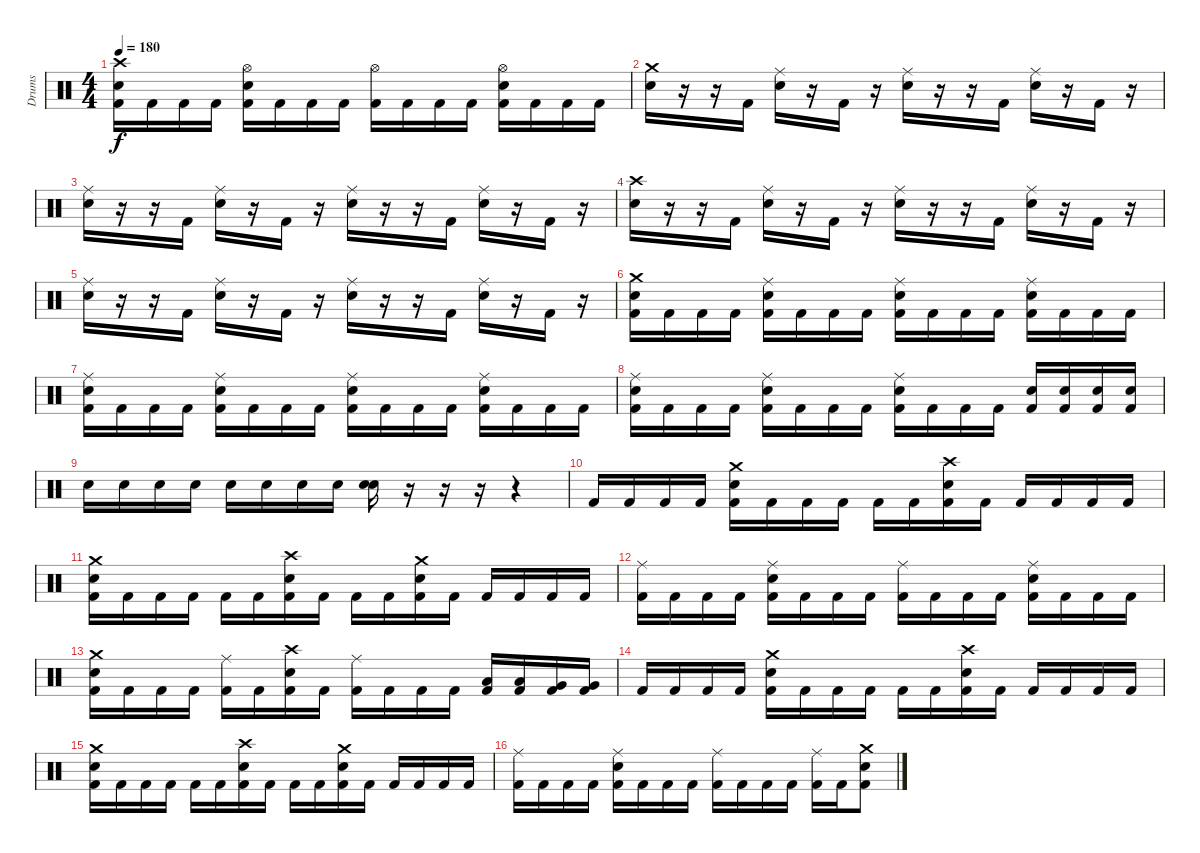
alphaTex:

\track ("Drums" "Drums") {instrument percussion}
\staff {score}
\articulation defaults
\ts (4 4)
\tempo 180
\clef neutral
\ks c
("Crash high (hit)" "Snare (hit) 2" "Kick (hit) 2").16{dy f} "Kick (hit) 2".16 "Kick (hit) 2".16 "Kick (hit) 2".16 ("Hi-Hat (open)" "Snare (hit) 2" "Kick (hit) 2").16 "Kick (hit) 2".16 "Kick (hit) 2".16 "Kick (hit) 2".16 ("Hi-Hat (open)" "Kick (hit) 2").16 "Kick (hit) 2".16 "Kick (hit) 2".16 "Kick (hit) 2".16 ("Hi-Hat (open)" "Snare (hit) 2" "Kick (hit) 2").16 "Kick (hit) 2".16 "Kick (hit) 2".16 "Kick (hit) 2".16 |
("Crash medium (hit)" "Snare (hit) 2").16 r.16 r.16 "Kick (hit) 2".16 ("Ride (middle)" "Snare (hit) 2").16 r.16 "Kick (hit) 2".16 r.16 ("Ride (middle)" "Snare (hit) 2").16 r.16 r.16 "Kick (hit) 2".16 ("Ride (middle)" "Snare (hit) 2").16 r.16 "Kick (hit) 2".16 r.16 |
("Ride (middle)" "Snare (hit) 2").16 r.16 r.16 "Kick (hit) 2".16 ("Ride (middle)" "Snare (hit) 2").16 r.16 "Kick (hit) 2".16 r.16 ("Ride (middle)" "Snare (hit) 2").16 r.16 r.16 "Kick (hit) 2".16 ("Ride (middle)" "Snare (hit) 2").16 r.16 "Kick (hit) 2".16 r.16 |
("Crash high (hit)" "Snare (hit) 2").16 r.16 r.16 "Kick (hit) 2".16 ("Ride (middle)" "Snare (hit) 2").16 r.16 "Kick (hit) 2".16 r.16 ("Ride (middle)" "Snare (hit) 2").16 r.16 r.16 "Kick (hit) 2".16 ("Ride (middle)" "Snare (hit) 2").16 r.16 "Kick (hit) 2".16 r.16 |
("Ride (middle)" "Snare (hit) 2").16 r.16 r.16 "Kick (hit) 2".16 ("Ride (middle)" "Snare (hit) 2").16 r.16 "Kick (hit) 2".16 r.16 ("Ride (middle)" "Snare (hit) 2").16 r.16 r.16 "Kick (hit) 2".16 ("Ride (middle)" "Snare (hit) 2").16 r.16 "Kick (hit) 2".16 r.16 |
("Crash medium (hit)" "Snare (hit) 2" "Kick (hit) 2").16 "Kick (hit) 2".16 "Kick (hit) 2".16 "Kick (hit) 2".16 ("Ride (middle)" "Snare (hit) 2" "Kick (hit) 2").16 "Kick (hit) 2".16 "Kick (hit) 2".16 "Kick (hit) 2".16 ("Ride (middle)" "Snare (hit) 2" "Kick (hit) 2").16 "Kick (hit) 2".16 "Kick (hit) 2".16 "Kick (hit) 2".16 ("Ride (middle)" "Snare (hit) 2" "Kick (hit) 2").16 "Kick (hit) 2".16 "Kick (hit) 2".16 "Kick (hit) 2".16 |
("Ride (middle)" "Snare (hit) 2" "Kick (hit) 2").16 "Kick (hit) 2".16 "Kick (hit) 2".16 "Kick (hit) 2".16 ("Ride (middle)" "Snare (hit) 2" "Kick (hit) 2").16 "Kick (hit) 2".16 "Kick (hit) 2".16 "Kick (hit) 2".16 ("Ride (middle)" "Snare (hit) 2" "Kick (hit) 2").16 "Kick (hit) 2".16 "Kick (hit) 2".16 "Kick (hit) 2".16 ("Ride (middle)" "Snare (hit) 2" "Kick (hit) 2").16 "Kick (hit) 2".16 "Kick (hit) 2".16 "Kick (hit) 2".16 |
("Ride (middle)" "Snare (hit) 2" "Kick (hit) 2").16 "Kick (hit) 2".16 "Kick (hit) 2".16 "Kick (hit) 2".16 ("Ride (middle)" "Snare (hit) 2" "Kick (hit) 2").16 "Kick (hit) 2".16 "Kick (hit) 2".16 "Kick (hit) 2".16 ("Ride (middle)" "Snare (hit) 2" "Kick (hit) 2").16 "Kick (hit) 2".16 "Kick (hit) 2".16 "Kick (hit) 2".16 ("Snare (hit) 2" "Kick (hit) 2").16 ("Snare (hit) 2" "Kick (hit) 2").16 ("Snare (hit) 2" "Kick (hit) 2").16 ("Snare (hit) 2" "Kick (hit) 2").16 |
"Snare (hit) 2".16 "Snare (hit) 2".16 "Snare (hit) 2".16 "Snare (hit) 2".16 "Snare (hit) 2".16 "Snare (hit) 2".16 "Snare (hit) 2".16 "Snare (hit) 2".16 ("Snare (hit) 2" "Snare (hit) 2").16 r.16 r.16 r.16 r.4 |
"Kick (hit) 2".16 "Kick (hit) 2".16 "Kick (hit) 2".16 "Kick (hit) 2".16 ("Crash medium (hit)" "Snare (hit) 2" "Kick (hit) 2").16 "Kick (hit) 2".16 "Kick (hit) 2".16 "Kick (hit) 2".16 "Kick (hit) 2".16 "Kick (hit) 2".16 ("Crash high (hit)" "Snare (hit) 2" "Kick (hit) 2").16 "Kick (hit) 2".16 "Kick (hit) 2".16 "Kick (hit) 2".16 "Kick (hit) 2".16 "Kick (hit) 2".16 |
("Crash medium (hit)" "Snare (hit) 2" "Kick (hit) 2").16 "Kick (hit) 2".16 "Kick (hit) 2".16 "Kick (hit) 2".16 "Kick (hit) 2".16 "Kick (hit) 2".16 ("Crash high (hit)" "Snare (hit) 2" "Kick (hit) 2").16 "Kick (hit) 2".16 "Kick (hit) 2".16 "Kick (hit) 2".16 ("Crash medium (hit)" "Snare (hit) 2" "Kick (hit) 2").16 "Kick (hit) 2".16 "Kick (hit) 2".16 "Kick (hit) 2".16 "Kick (hit) 2".16 "Kick (hit) 2".16 |
("Ride (middle)" "Kick (hit) 2").16 "Kick (hit) 2".16 "Kick (hit) 2".16 "Kick (hit) 2".16 ("Ride (middle)" "Snare (hit) 2" "Kick (hit) 2").16 "Kick (hit) 2".16 "Kick (hit) 2".16 "Kick (hit) 2".16 ("Ride (middle)" "Kick (hit) 2").16 "Kick (hit) 2".16 "Kick (hit) 2".16 "Kick (hit) 2".16 ("Ride (middle)" "Snare (hit) 2" "Kick (hit) 2").16 "Kick (hit) 2".16 "Kick (hit) 2".16 "Kick (hit) 2".16 |
("Crash medium (hit)" "Snare (hit) 2" "Kick (hit) 2").16 "Kick (hit) 2".16 "Kick (hit) 2".16 "Kick (hit) 2".16 ("Ride (middle)" "Kick (hit) 2").16 "Kick (hit) 2".16 ("Crash high (hit)" "Snare (hit) 2" "Kick (hit) 2").16 "Kick (hit) 2".16 ("Ride (middle)" "Kick (hit) 2").16 "Kick (hit) 2".16 "Kick (hit) 2".16 "Kick (hit) 2".16 ("Low Tom (hit)" "Kick (hit) 2").16 ("Low Tom (hit)" "Kick (hit) 2").16 ("Very Low Tom (hit)" "Kick (hit) 2").16 ("Very Low Tom (hit)" "Kick (hit) 2").16 |
"Kick (hit) 2".16 "Kick (hit) 2".16 "Kick (hit) 2".16 "Kick (hit) 2".16 ("Crash medium (hit)" "Snare (hit) 2" "Kick (hit) 2").16 "Kick (hit) 2".16 "Kick (hit) 2".16 "Kick (hit) 2".16 "Kick (hit) 2".16 "Kick (hit) 2".16 ("Crash high (hit)" "Snare (hit) 2" "Kick (hit) 2").16 "Kick (hit) 2".16 "Kick (hit) 2".16 "Kick (hit) 2".16 "Kick (hit) 2".16 "Kick (hit) 2".16 |
("Crash medium (hit)" "Snare (hit) 2" "Kick (hit) 2").16 "Kick (hit) 2".16 "Kick (hit) 2".16 "Kick (hit) 2".16 "Kick (hit) 2".16 "Kick (hit) 2".16 ("Crash high (hit)" "Snare (hit) 2" "Kick (hit) 2").16 "Kick (hit) 2".16 "Kick (hit) 2".16 "Kick (hit) 2".16 ("Crash medium (hit)" "Snare (hit) 2" "Kick (hit) 2").16 "Kick (hit) 2".16 "Kick (hit) 2".16 "Kick (hit) 2".16 "Kick (hit) 2".16 "Kick (hit) 2".16 |
("Ride (middle)" "Kick (hit) 2").16 "Kick (hit) 2".16 "Kick (hit) 2".16 "Kick (hit) 2".16 ("Ride (middle)" "Snare (hit) 2" "Kick (hit) 2").16 "Kick (hit) 2".16 "Kick (hit) 2".16 "Kick (hit) 2".16 ("Ride (middle)" "Kick (hit) 2").16 "Kick (hit) 2".16 "Kick (hit) 2".16 "Kick (hit) 2".16 ("Ride (middle)" "Kick (hit) 2").16 "Kick (hit) 2".16 ("Crash medium (hit)" "Snare (hit) 2" "Kick (hit) 2").8
